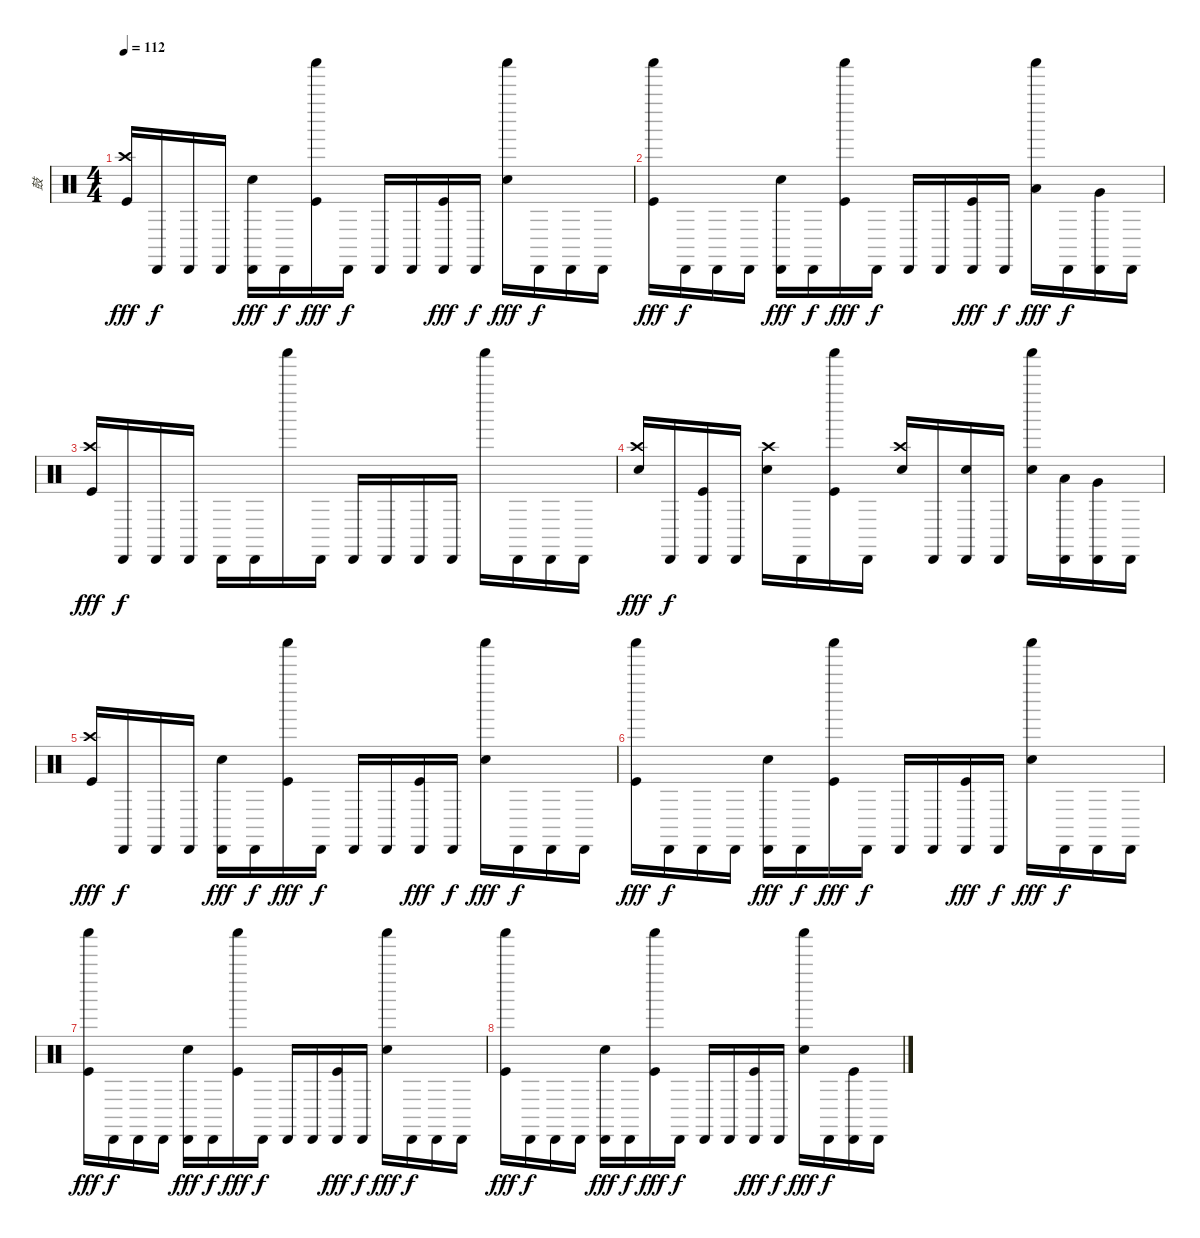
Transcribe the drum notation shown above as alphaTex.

\track ("鼓" "鼓") {instrument percussion}
\staff {score}
\articulation defaults
\ts (4 4)
\tempo 112
\clef neutral
\ks c
("Crash high (hit)" "Kick (hit)").16{dy fff} "Cabasa (hit)".16{dy f} "Cabasa (hit)".16 "Cabasa (hit)".16 ("Cabasa (hit)" "Electric Snare (hit)").16{dy fff} "Cabasa (hit)".16{dy f} ("Shaker (hit)" "Kick (hit)").16{dy fff} "Cabasa (hit)".16{dy f} "Cabasa (hit)".16 "Cabasa (hit)".16 ("Cabasa (hit)" "Kick (hit)").16{dy fff} "Cabasa (hit)".16{dy f} ("Shaker (hit)" "Electric Snare (hit)").16{dy fff} "Cabasa (hit)".16{dy f} "Cabasa (hit)".16 "Cabasa (hit)".16 |
("Shaker (hit)" "Kick (hit)").16{dy fff} "Cabasa (hit)".16{dy f} "Cabasa (hit)".16 "Cabasa (hit)".16 ("Cabasa (hit)" "Electric Snare (hit)").16{dy fff} "Cabasa (hit)".16{dy f} ("Shaker (hit)" "Kick (hit)").16{dy fff} "Cabasa (hit)".16{dy f} "Cabasa (hit)".16 "Cabasa (hit)".16 ("Cabasa (hit)" "Kick (hit)").16{dy fff} "Cabasa (hit)".16{dy f} ("Shaker (hit)" "Low Tom (hit)").16{dy fff} "Cabasa (hit)".16{dy f} ("Cabasa (hit)" "Very Low Tom (hit)").16 "Cabasa (hit)".16 |
("Crash high (hit)" "Kick (hit)").16{dy fff} "Cabasa (hit)".16{dy f} "Cabasa (hit)".16 "Cabasa (hit)".16 "Cabasa (hit)".16 "Cabasa (hit)".16 "Shaker (hit)".16 "Cabasa (hit)".16 "Cabasa (hit)".16 "Cabasa (hit)".16 "Cabasa (hit)".16 "Cabasa (hit)".16 "Shaker (hit)".16 "Cabasa (hit)".16 "Cabasa (hit)".16 "Cabasa (hit)".16 |
("Crash high (hit)" "Electric Snare (hit)").16{dy fff} "Cabasa (hit)".16{dy f} ("Cabasa (hit)" "Kick (hit)").16 "Cabasa (hit)".16 ("Crash high (hit)" "Electric Snare (hit)").16 "Cabasa (hit)".16 ("Shaker (hit)" "Kick (hit)").16 "Cabasa (hit)".16 ("Crash high (hit)" "Electric Snare (hit)").16 "Cabasa (hit)".16 ("Cabasa (hit)" "Electric Snare (hit)").16 "Cabasa (hit)".16 ("Shaker (hit)" "Electric Snare (hit)").16 ("Cabasa (hit)" "Low Tom (hit)").16 ("Cabasa (hit)" "Very Low Tom (hit)").16 "Cabasa (hit)".16 |
("Crash high (hit)" "Kick (hit)").16{dy fff} "Cabasa (hit)".16{dy f} "Cabasa (hit)".16 "Cabasa (hit)".16 ("Cabasa (hit)" "Electric Snare (hit)").16{dy fff} "Cabasa (hit)".16{dy f} ("Shaker (hit)" "Kick (hit)").16{dy fff} "Cabasa (hit)".16{dy f} "Cabasa (hit)".16 "Cabasa (hit)".16 ("Cabasa (hit)" "Kick (hit)").16{dy fff} "Cabasa (hit)".16{dy f} ("Shaker (hit)" "Electric Snare (hit)").16{dy fff} "Cabasa (hit)".16{dy f} "Cabasa (hit)".16 "Cabasa (hit)".16 |
("Shaker (hit)" "Kick (hit)").16{dy fff} "Cabasa (hit)".16{dy f} "Cabasa (hit)".16 "Cabasa (hit)".16 ("Cabasa (hit)" "Electric Snare (hit)").16{dy fff} "Cabasa (hit)".16{dy f} ("Shaker (hit)" "Kick (hit)").16{dy fff} "Cabasa (hit)".16{dy f} "Cabasa (hit)".16 "Cabasa (hit)".16 ("Cabasa (hit)" "Kick (hit)").16{dy fff} "Cabasa (hit)".16{dy f} ("Shaker (hit)" "Electric Snare (hit)").16{dy fff} "Cabasa (hit)".16{dy f} "Cabasa (hit)".16 "Cabasa (hit)".16 |
("Shaker (hit)" "Kick (hit)").16{dy fff} "Cabasa (hit)".16{dy f} "Cabasa (hit)".16 "Cabasa (hit)".16 ("Cabasa (hit)" "Electric Snare (hit)").16{dy fff} "Cabasa (hit)".16{dy f} ("Shaker (hit)" "Kick (hit)").16{dy fff} "Cabasa (hit)".16{dy f} "Cabasa (hit)".16 "Cabasa (hit)".16 ("Cabasa (hit)" "Kick (hit)").16{dy fff} "Cabasa (hit)".16{dy f} ("Shaker (hit)" "Electric Snare (hit)").16{dy fff} "Cabasa (hit)".16{dy f} "Cabasa (hit)".16 "Cabasa (hit)".16 |
("Shaker (hit)" "Kick (hit)").16{dy fff} "Cabasa (hit)".16{dy f} "Cabasa (hit)".16 "Cabasa (hit)".16 ("Cabasa (hit)" "Electric Snare (hit)").16{dy fff} "Cabasa (hit)".16{dy f} ("Shaker (hit)" "Kick (hit)").16{dy fff} "Cabasa (hit)".16{dy f} "Cabasa (hit)".16 "Cabasa (hit)".16 ("Cabasa (hit)" "Kick (hit)").16{dy fff} "Cabasa (hit)".16{dy f} ("Shaker (hit)" "Electric Snare (hit)").16{dy fff} "Cabasa (hit)".16{dy f} ("Cabasa (hit)" "Kick (hit)").16 "Cabasa (hit)".16
